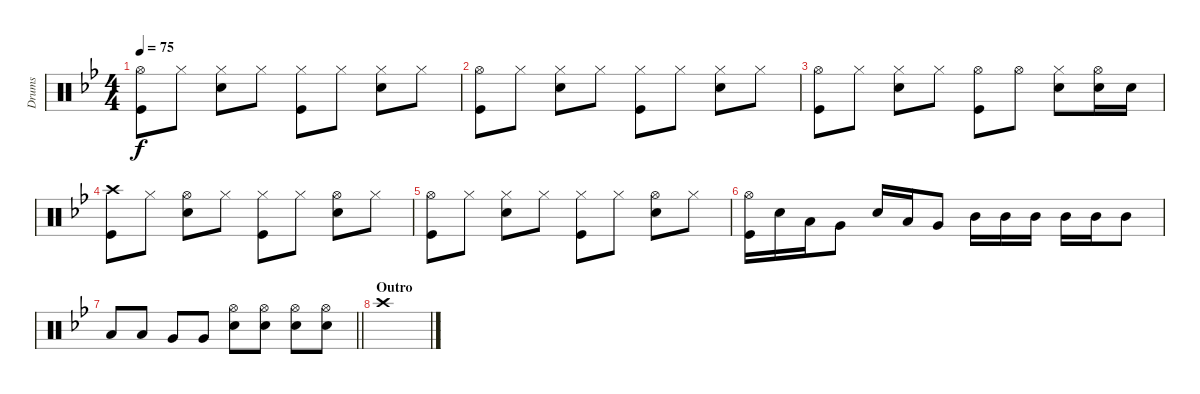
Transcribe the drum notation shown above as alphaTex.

\track ("Drums" "Drums") {instrument percussion}
\staff {score}
\articulation defaults
\ts (4 4)
\tempo 75
\clef neutral
\ks bb
("Kick (hit)" "Hi-Hat (open)").8{dy f} "Hi-Hat (closed)".8 ("Hi-Hat (closed)" "Electric Snare (hit)").8 "Hi-Hat (closed)".8 ("Kick (hit)" "Hi-Hat (closed)").8 "Hi-Hat (closed)".8 ("Hi-Hat (closed)" "Electric Snare (hit)").8 "Hi-Hat (closed)".8 |
("Kick (hit)" "Hi-Hat (open)").8 "Hi-Hat (closed)".8 ("Hi-Hat (closed)" "Electric Snare (hit)").8 "Hi-Hat (closed)".8 ("Kick (hit)" "Hi-Hat (closed)").8 "Hi-Hat (closed)".8 ("Hi-Hat (closed)" "Electric Snare (hit)").8 "Hi-Hat (closed)".8 |
("Kick (hit)" "Hi-Hat (open)").8 "Hi-Hat (closed)".8 ("Hi-Hat (closed)" "Electric Snare (hit)").8 "Hi-Hat (closed)".8 ("Kick (hit)" "Hi-Hat (open)").8 "Hi-Hat (open)".8 ("Hi-Hat (closed)" "Electric Snare (hit)").8 ("Hi-Hat (open)" "Electric Snare (hit)").16 "Electric Snare (hit)".16 |
("Kick (hit)" "Crash high (hit)").8 "Hi-Hat (closed)".8 ("Hi-Hat (open)" "Electric Snare (hit)").8 "Hi-Hat (closed)".8 ("Kick (hit)" "Hi-Hat (closed)").8 "Hi-Hat (closed)".8 ("Hi-Hat (open)" "Electric Snare (hit)").8 "Hi-Hat (closed)".8 |
("Kick (hit)" "Hi-Hat (open)").8 "Hi-Hat (closed)".8 ("Hi-Hat (closed)" "Electric Snare (hit)").8 "Hi-Hat (closed)".8 ("Kick (hit)" "Hi-Hat (closed)").8 "Hi-Hat (closed)".8 ("Hi-Hat (open)" "Electric Snare (hit)").8 "Hi-Hat (closed)".8 |
("Kick (hit)" "Hi-Hat (open)").16 "Electric Snare (hit)".16 "Low Tom (hit)".16 "Very Low Tom (hit)".8 "Electric Snare (hit)".16 "Low Tom (hit)".16 "Very Low Tom (hit)".8 "Mid Tom (hit)".16 "Mid Tom (hit)".16 "Mid Tom (hit)".16 "Mid Tom (hit)".16 "Mid Tom (hit)".16 "Mid Tom (hit)".8 |
\barLineRight lightlight "Low Tom (hit)".8 "Low Tom (hit)".8 "Very Low Tom (hit)".8 "Very Low Tom (hit)".8
("Hi-Hat (open)" "Electric Snare (hit)").8 ("Hi-Hat (open)" "Electric Snare (hit)").8 ("Hi-Hat (open)" "Electric Snare (hit)").8 ("Hi-Hat (open)" "Electric Snare (hit)").8 |
\section ("" "Outro")
"Crash high (hit)".1
